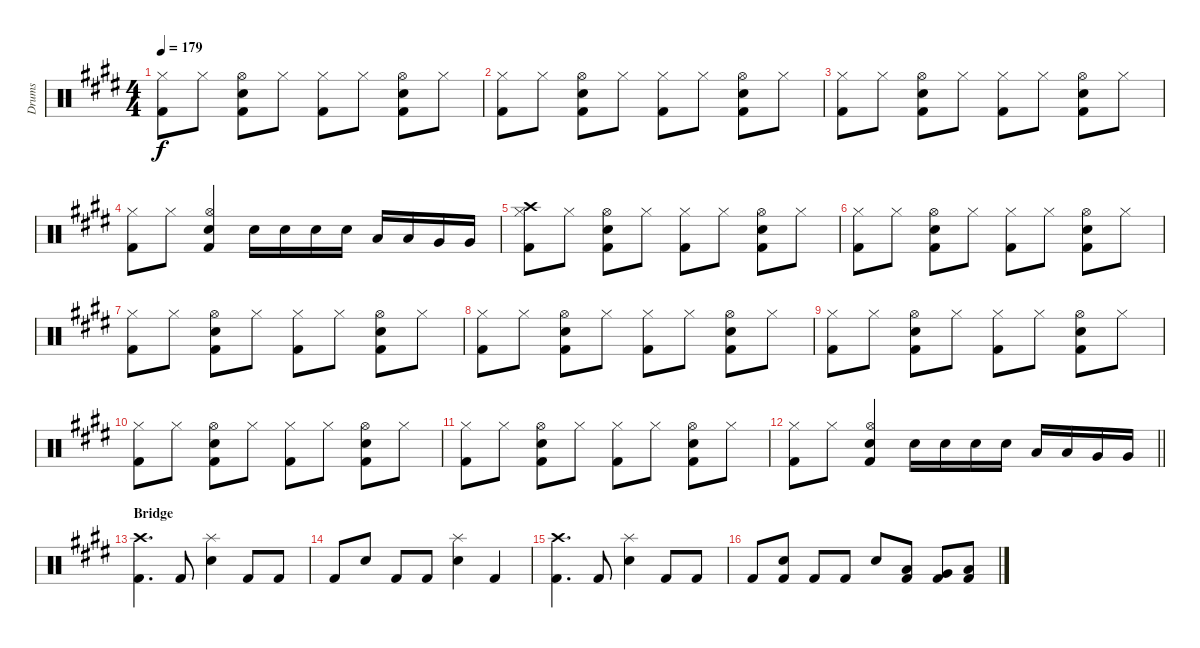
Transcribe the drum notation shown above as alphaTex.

\track ("Drums" "Drums") {instrument percussion}
\staff {score}
\articulation defaults
\ts (4 4)
\tempo 179
\clef neutral
\ks e
("Hi-Hat (closed)" "Kick (hit) 2").8{dy f} "Hi-Hat (closed)".8 ("Hi-Hat (open)" "Snare (hit) 2" "Kick (hit) 2").8 "Hi-Hat (closed)".8 ("Hi-Hat (closed)" "Kick (hit) 2").8 "Hi-Hat (closed)".8 ("Hi-Hat (open)" "Snare (hit) 2" "Kick (hit) 2").8 "Hi-Hat (closed)".8 |
("Hi-Hat (closed)" "Kick (hit) 2").8 "Hi-Hat (closed)".8 ("Hi-Hat (open)" "Snare (hit) 2" "Kick (hit) 2").8 "Hi-Hat (closed)".8 ("Hi-Hat (closed)" "Kick (hit) 2").8 "Hi-Hat (closed)".8 ("Hi-Hat (open)" "Snare (hit) 2" "Kick (hit) 2").8 "Hi-Hat (closed)".8 |
("Hi-Hat (closed)" "Kick (hit) 2").8 "Hi-Hat (closed)".8 ("Hi-Hat (open)" "Snare (hit) 2" "Kick (hit) 2").8 "Hi-Hat (closed)".8 ("Hi-Hat (closed)" "Kick (hit) 2").8 "Hi-Hat (closed)".8 ("Hi-Hat (open)" "Snare (hit) 2" "Kick (hit) 2").8 "Hi-Hat (closed)".8 |
("Hi-Hat (closed)" "Kick (hit) 2").8 "Hi-Hat (closed)".8 ("Hi-Hat (open)" "Snare (hit) 2" "Kick (hit) 2").4 "Snare (hit) 2".16 "Snare (hit) 2".16 "Snare (hit) 2".16 "Snare (hit) 2".16 "Low Tom (hit)".16 "Low Tom (hit)".16 "Very Low Tom (hit)".16 "Very Low Tom (hit)".16 |
("Hi-Hat (closed)" "Crash high (hit)" "Kick (hit) 2").8 "Hi-Hat (closed)".8 ("Hi-Hat (open)" "Snare (hit) 2" "Kick (hit) 2").8 "Hi-Hat (closed)".8 ("Hi-Hat (closed)" "Kick (hit) 2").8 "Hi-Hat (closed)".8 ("Hi-Hat (open)" "Snare (hit) 2" "Kick (hit) 2").8 "Hi-Hat (closed)".8 |
("Hi-Hat (closed)" "Kick (hit) 2").8 "Hi-Hat (closed)".8 ("Hi-Hat (open)" "Snare (hit) 2" "Kick (hit) 2").8 "Hi-Hat (closed)".8 ("Hi-Hat (closed)" "Kick (hit) 2").8 "Hi-Hat (closed)".8 ("Hi-Hat (open)" "Snare (hit) 2" "Kick (hit) 2").8 "Hi-Hat (closed)".8 |
("Hi-Hat (closed)" "Kick (hit) 2").8 "Hi-Hat (closed)".8 ("Hi-Hat (open)" "Snare (hit) 2" "Kick (hit) 2").8 "Hi-Hat (closed)".8 ("Hi-Hat (closed)" "Kick (hit) 2").8 "Hi-Hat (closed)".8 ("Hi-Hat (open)" "Snare (hit) 2" "Kick (hit) 2").8 "Hi-Hat (closed)".8 |
("Hi-Hat (closed)" "Kick (hit) 2").8 "Hi-Hat (closed)".8 ("Hi-Hat (open)" "Snare (hit) 2" "Kick (hit) 2").8 "Hi-Hat (closed)".8 ("Hi-Hat (closed)" "Kick (hit) 2").8 "Hi-Hat (closed)".8 ("Hi-Hat (open)" "Snare (hit) 2" "Kick (hit) 2").8 "Hi-Hat (closed)".8 |
("Hi-Hat (closed)" "Kick (hit) 2").8 "Hi-Hat (closed)".8 ("Hi-Hat (open)" "Snare (hit) 2" "Kick (hit) 2").8 "Hi-Hat (closed)".8 ("Hi-Hat (closed)" "Kick (hit) 2").8 "Hi-Hat (closed)".8 ("Hi-Hat (open)" "Snare (hit) 2" "Kick (hit) 2").8 "Hi-Hat (closed)".8 |
("Hi-Hat (closed)" "Kick (hit) 2").8 "Hi-Hat (closed)".8 ("Hi-Hat (open)" "Snare (hit) 2" "Kick (hit) 2").8 "Hi-Hat (closed)".8 ("Hi-Hat (closed)" "Kick (hit) 2").8 "Hi-Hat (closed)".8 ("Hi-Hat (open)" "Snare (hit) 2" "Kick (hit) 2").8 "Hi-Hat (closed)".8 |
("Hi-Hat (closed)" "Kick (hit) 2").8 "Hi-Hat (closed)".8 ("Hi-Hat (open)" "Snare (hit) 2" "Kick (hit) 2").8 "Hi-Hat (closed)".8 ("Hi-Hat (closed)" "Kick (hit) 2").8 "Hi-Hat (closed)".8 ("Hi-Hat (open)" "Snare (hit) 2" "Kick (hit) 2").8 "Hi-Hat (closed)".8 |
\barLineRight lightlight
("Hi-Hat (closed)" "Kick (hit) 2").8 "Hi-Hat (closed)".8 ("Hi-Hat (open)" "Snare (hit) 2" "Kick (hit) 2").4 "Snare (hit) 2".16 "Snare (hit) 2".16 "Snare (hit) 2".16 "Snare (hit) 2".16 "Low Tom (hit)".16 "Low Tom (hit)".16 "Very Low Tom (hit)".16 "Very Low Tom (hit)".16 |
\section ("" "Bridge")
("Crash high (hit)" "Kick (hit) 2").4{d} "Kick (hit) 2".8 ("Splash (hit)" "Snare (hit) 2").4 "Kick (hit) 2".8 "Kick (hit) 2".8 |
"Kick (hit) 2".8 "Snare (hit) 2".8 "Kick (hit) 2".8 "Kick (hit) 2".8 ("Splash (hit)" "Snare (hit) 2").4 "Kick (hit) 2".4 |
("Crash high (hit)" "Kick (hit) 2").4{d} "Kick (hit) 2".8 ("Splash (hit)" "Snare (hit) 2").4 "Kick (hit) 2".8 "Kick (hit) 2".8 |
"Kick (hit) 2".8 ("Snare (hit) 2" "Kick (hit) 2").8 "Kick (hit) 2".8 "Kick (hit) 2".8 "Snare (hit) 2".8 ("Low Tom (hit)" "Kick (hit) 2").8 ("Very Low Tom (hit)" "Kick (hit) 2").8 ("Low Floor Tom (hit)" "Kick (hit) 2").8
